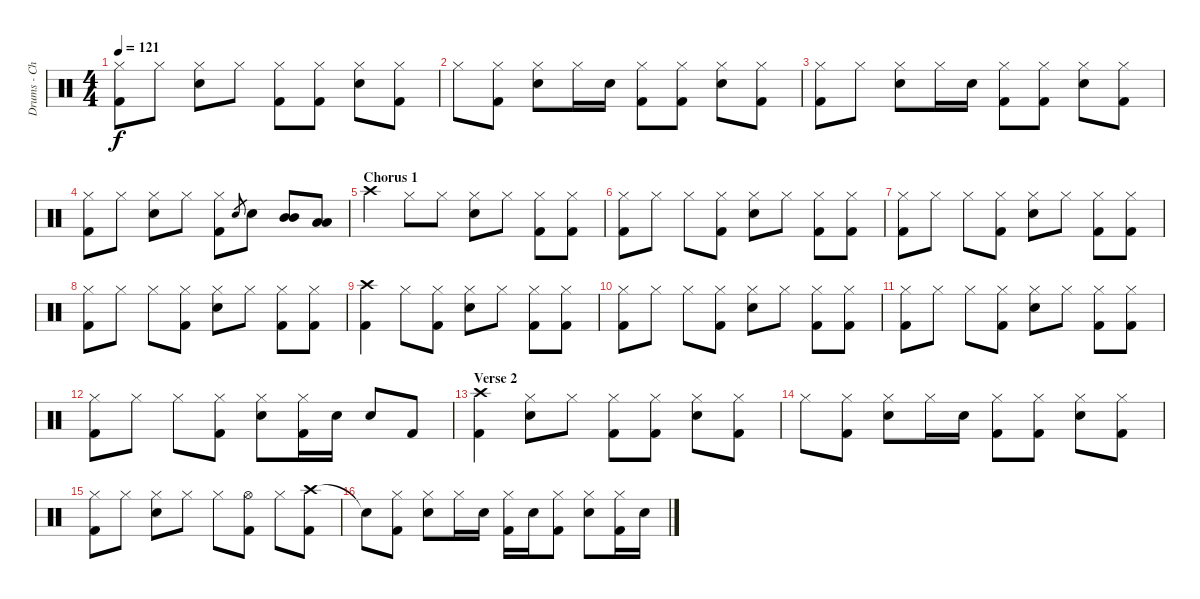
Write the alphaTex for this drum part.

\track ("Drums - Chad" "Drums - Ch") {instrument percussion}
\staff {score}
\articulation defaults
\ts (4 4)
\tempo 121
\clef neutral
\ks c
("Hi-Hat (closed)" "Kick (hit) 2").8{dy f} "Hi-Hat (closed)".8 ("Hi-Hat (closed)" "Electric Snare (hit)").8 "Hi-Hat (closed)".8 ("Hi-Hat (closed)" "Kick (hit) 2").8 ("Hi-Hat (closed)" "Kick (hit) 2").8 ("Hi-Hat (closed)" "Electric Snare (hit)").8 ("Hi-Hat (closed)" "Kick (hit) 2").8 |
"Hi-Hat (closed)".8 ("Hi-Hat (closed)" "Kick (hit) 2").8 ("Hi-Hat (closed)" "Electric Snare (hit)").8 "Hi-Hat (closed)".16 "Electric Snare (hit)".16 ("Hi-Hat (closed)" "Kick (hit) 2").8 ("Hi-Hat (closed)" "Kick (hit) 2").8 ("Hi-Hat (closed)" "Electric Snare (hit)").8 ("Hi-Hat (closed)" "Kick (hit) 2").8 |
("Hi-Hat (closed)" "Kick (hit) 2").8 "Hi-Hat (closed)".8 ("Hi-Hat (closed)" "Electric Snare (hit)").8 "Hi-Hat (closed)".16 "Electric Snare (hit)".16 ("Hi-Hat (closed)" "Kick (hit) 2").8 ("Hi-Hat (closed)" "Kick (hit) 2").8 ("Hi-Hat (closed)" "Electric Snare (hit)").8 ("Hi-Hat (closed)" "Kick (hit) 2").8 |
("Hi-Hat (closed)" "Kick (hit) 2").8 "Hi-Hat (closed)".8 ("Hi-Hat (closed)" "Electric Snare (hit)").8 "Hi-Hat (closed)".8 ("Hi-Hat (closed)" "Kick (hit) 2").8 "Electric Snare (hit)".8{gr} "Electric Snare (hit)".8 ("Mid Tom (hit)" "Mid Tom (hit)").8 ("Low Tom (hit)" "Low Tom (hit)").8 |
\section ("" "Chorus 1")
"Crash high (hit)".4 "Hi-Hat (closed)".8 "Hi-Hat (closed)".8 ("Hi-Hat (closed)" "Electric Snare (hit)").8 "Hi-Hat (closed)".8 ("Hi-Hat (closed)" "Kick (hit) 2").8 ("Hi-Hat (closed)" "Kick (hit) 2").8 |
("Hi-Hat (closed)" "Kick (hit) 2").8 "Hi-Hat (closed)".8 "Hi-Hat (closed)".8 ("Hi-Hat (closed)" "Kick (hit) 2").8 ("Hi-Hat (closed)" "Electric Snare (hit)").8 "Hi-Hat (closed)".8 ("Hi-Hat (closed)" "Kick (hit) 2").8 ("Hi-Hat (closed)" "Kick (hit) 2").8 |
("Hi-Hat (closed)" "Kick (hit) 2").8 "Hi-Hat (closed)".8 "Hi-Hat (closed)".8 ("Hi-Hat (closed)" "Kick (hit) 2").8 ("Hi-Hat (closed)" "Electric Snare (hit)").8 "Hi-Hat (closed)".8 ("Hi-Hat (closed)" "Kick (hit) 2").8 ("Hi-Hat (closed)" "Kick (hit) 2").8 |
("Hi-Hat (closed)" "Kick (hit) 2").8 "Hi-Hat (closed)".8 "Hi-Hat (closed)".8 ("Hi-Hat (closed)" "Kick (hit) 2").8 ("Hi-Hat (closed)" "Electric Snare (hit)").8 "Hi-Hat (closed)".8 ("Hi-Hat (closed)" "Kick (hit) 2").8 ("Hi-Hat (closed)" "Kick (hit) 2").8 |
("Crash high (hit)" "Kick (hit) 2").4 "Hi-Hat (closed)".8 ("Hi-Hat (closed)" "Kick (hit) 2").8 ("Hi-Hat (closed)" "Electric Snare (hit)").8 "Hi-Hat (closed)".8 ("Hi-Hat (closed)" "Kick (hit) 2").8 ("Hi-Hat (closed)" "Kick (hit) 2").8 |
("Hi-Hat (closed)" "Kick (hit) 2").8 "Hi-Hat (closed)".8 "Hi-Hat (closed)".8 ("Hi-Hat (closed)" "Kick (hit) 2").8 ("Hi-Hat (closed)" "Electric Snare (hit)").8 "Hi-Hat (closed)".8 ("Hi-Hat (closed)" "Kick (hit) 2").8 ("Hi-Hat (closed)" "Kick (hit) 2").8 |
("Hi-Hat (closed)" "Kick (hit) 2").8 "Hi-Hat (closed)".8 "Hi-Hat (closed)".8 ("Hi-Hat (closed)" "Kick (hit) 2").8 ("Hi-Hat (closed)" "Electric Snare (hit)").8 "Hi-Hat (closed)".8 ("Hi-Hat (closed)" "Kick (hit) 2").8 ("Hi-Hat (closed)" "Kick (hit) 2").8 |
("Hi-Hat (closed)" "Kick (hit) 2").8 "Hi-Hat (closed)".8 "Hi-Hat (closed)".8 ("Hi-Hat (closed)" "Kick (hit) 2").8 ("Hi-Hat (closed)" "Electric Snare (hit)").8 ("Hi-Hat (closed)" "Kick (hit) 2").16 "Electric Snare (hit)".16 "Electric Snare (hit)".8 "Kick (hit) 2".8 |
\section ("" "Verse 2")
("Crash high (hit)" "Kick (hit) 2").4 ("Hi-Hat (closed)" "Electric Snare (hit)").8 "Hi-Hat (closed)".8 ("Hi-Hat (closed)" "Kick (hit) 2").8 ("Hi-Hat (closed)" "Kick (hit) 2").8 ("Hi-Hat (closed)" "Electric Snare (hit)").8 ("Hi-Hat (closed)" "Kick (hit) 2").8 |
"Hi-Hat (closed)".8 ("Hi-Hat (closed)" "Kick (hit) 2").8 ("Hi-Hat (closed)" "Electric Snare (hit)").8 "Hi-Hat (closed)".16 "Electric Snare (hit)".16 ("Hi-Hat (closed)" "Kick (hit) 2").8 ("Hi-Hat (closed)" "Kick (hit) 2").8 ("Hi-Hat (closed)" "Electric Snare (hit)").8 ("Hi-Hat (closed)" "Kick (hit) 2").8 |
("Hi-Hat (closed)" "Kick (hit) 2").8 "Hi-Hat (closed)".8 ("Hi-Hat (closed)" "Electric Snare (hit)").8 "Hi-Hat (closed)".8 "Hi-Hat (closed)".8 ("Hi-Hat (open)" "Kick (hit) 2").8 "Hi-Hat (closed)".8 ("Crash high (hit)" "Kick (hit) 2").8 |
"Snare (hit)"{t}.8 ("Hi-Hat (closed)" "Kick (hit) 2").8 ("Hi-Hat (closed)" "Electric Snare (hit)").8 "Hi-Hat (closed)".16 "Electric Snare (hit)".16 ("Hi-Hat (closed)" "Kick (hit) 2").16 "Electric Snare (hit)".16 ("Hi-Hat (closed)" "Kick (hit) 2").8 ("Hi-Hat (closed)" "Electric Snare (hit)").8 ("Hi-Hat (closed)" "Kick (hit) 2").16 "Electric Snare (hit)".16
